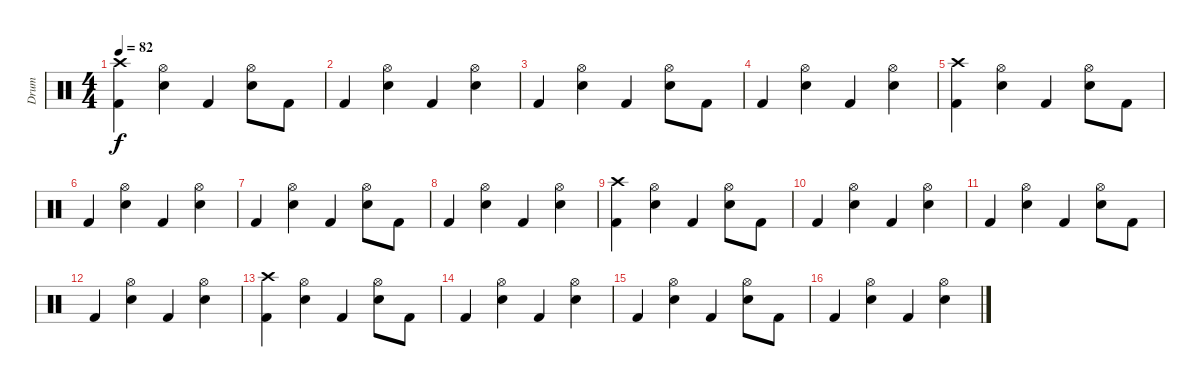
\track ("Drum" "Drum") {instrument percussion}
\staff {score}
\articulation defaults
\ts (4 4)
\tempo 82
\clef neutral
\ks c
("Crash high (hit)" "Kick (hit) 2").4{dy f} ("Hi-Hat (open)" "Snare (hit) 2").4 "Kick (hit) 2".4 ("Hi-Hat (open)" "Snare (hit) 2").8 "Kick (hit) 2".8 |
"Kick (hit) 2".4 ("Hi-Hat (open)" "Snare (hit) 2").4 "Kick (hit) 2".4 ("Hi-Hat (open)" "Snare (hit) 2").4 |
"Kick (hit) 2".4 ("Hi-Hat (open)" "Snare (hit) 2").4 "Kick (hit) 2".4 ("Hi-Hat (open)" "Snare (hit) 2").8 "Kick (hit) 2".8 |
"Kick (hit) 2".4 ("Hi-Hat (open)" "Snare (hit) 2").4 "Kick (hit) 2".4 ("Hi-Hat (open)" "Snare (hit) 2").4 |
("Crash high (hit)" "Kick (hit) 2").4 ("Hi-Hat (open)" "Snare (hit) 2").4 "Kick (hit) 2".4 ("Hi-Hat (open)" "Snare (hit) 2").8 "Kick (hit) 2".8 |
"Kick (hit) 2".4 ("Hi-Hat (open)" "Snare (hit) 2").4 "Kick (hit) 2".4 ("Hi-Hat (open)" "Snare (hit) 2").4 |
"Kick (hit) 2".4 ("Hi-Hat (open)" "Snare (hit) 2").4 "Kick (hit) 2".4 ("Hi-Hat (open)" "Snare (hit) 2").8 "Kick (hit) 2".8 |
"Kick (hit) 2".4 ("Hi-Hat (open)" "Snare (hit) 2").4 "Kick (hit) 2".4 ("Hi-Hat (open)" "Snare (hit) 2").4 |
("Crash high (hit)" "Kick (hit) 2").4 ("Hi-Hat (open)" "Snare (hit) 2").4 "Kick (hit) 2".4 ("Hi-Hat (open)" "Snare (hit) 2").8 "Kick (hit) 2".8 |
"Kick (hit) 2".4 ("Hi-Hat (open)" "Snare (hit) 2").4 "Kick (hit) 2".4 ("Hi-Hat (open)" "Snare (hit) 2").4 |
"Kick (hit) 2".4 ("Hi-Hat (open)" "Snare (hit) 2").4 "Kick (hit) 2".4 ("Hi-Hat (open)" "Snare (hit) 2").8 "Kick (hit) 2".8 |
"Kick (hit) 2".4 ("Hi-Hat (open)" "Snare (hit) 2").4 "Kick (hit) 2".4 ("Hi-Hat (open)" "Snare (hit) 2").4 |
("Crash high (hit)" "Kick (hit) 2").4 ("Hi-Hat (open)" "Snare (hit) 2").4 "Kick (hit) 2".4 ("Hi-Hat (open)" "Snare (hit) 2").8 "Kick (hit) 2".8 |
"Kick (hit) 2".4 ("Hi-Hat (open)" "Snare (hit) 2").4 "Kick (hit) 2".4 ("Hi-Hat (open)" "Snare (hit) 2").4 |
"Kick (hit) 2".4 ("Hi-Hat (open)" "Snare (hit) 2").4 "Kick (hit) 2".4 ("Hi-Hat (open)" "Snare (hit) 2").8 "Kick (hit) 2".8 |
"Kick (hit) 2".4 ("Hi-Hat (open)" "Snare (hit) 2").4 "Kick (hit) 2".4 ("Hi-Hat (open)" "Snare (hit) 2").4
